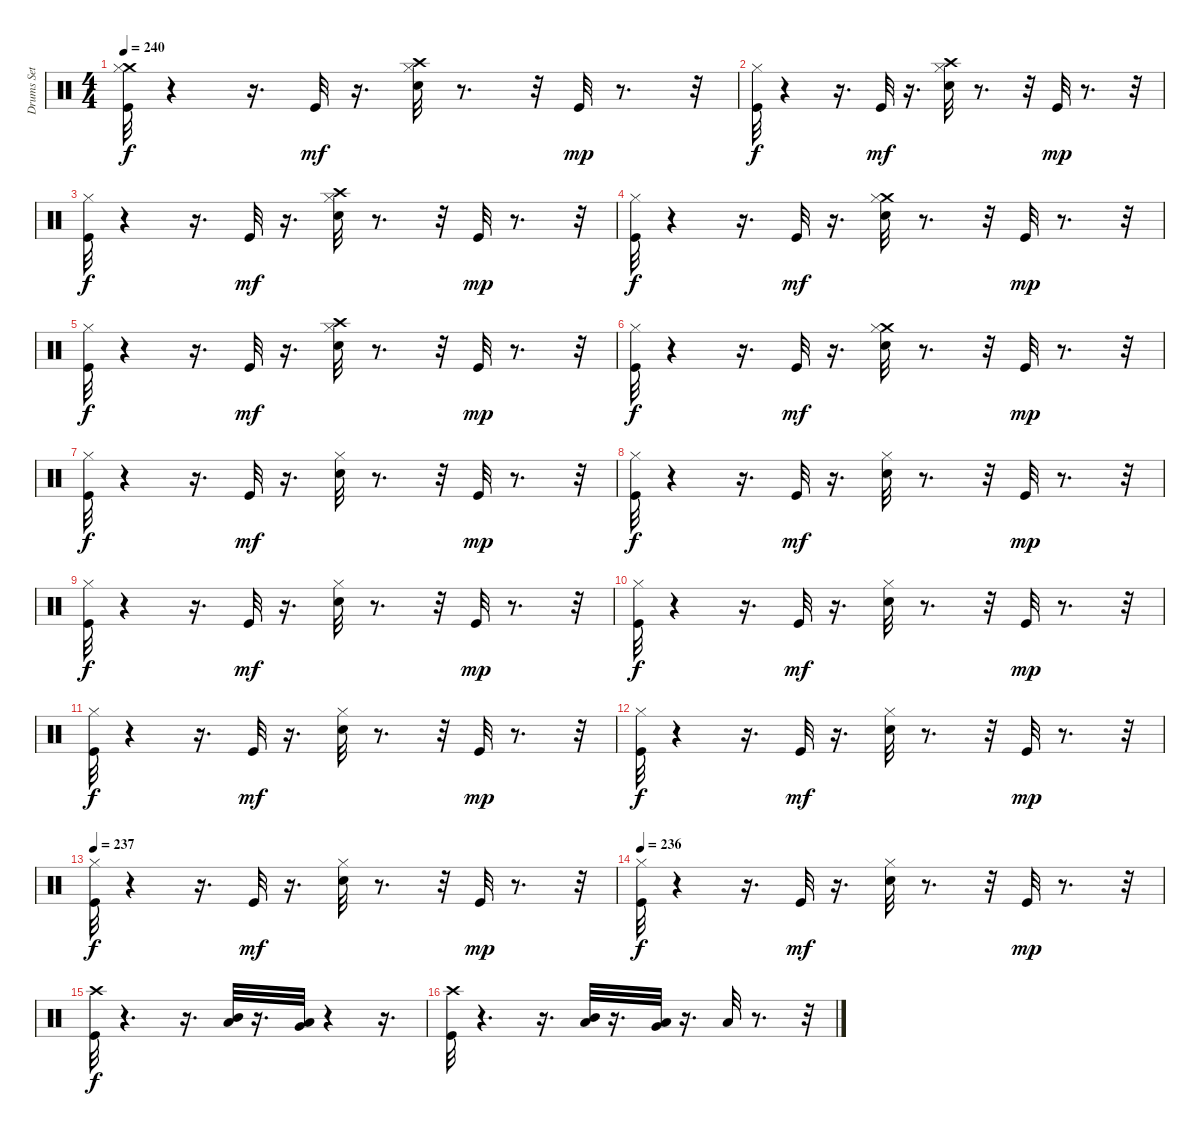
\track ("Drums Set" "Drums Set") {instrument percussion}
\staff {score}
\articulation defaults
\ts (4 4)
\tempo 240
\clef neutral
\ks c
("Crash medium (hit)" "Kick (hit)" "Hi-Hat (closed)").32{dy f} r.4 r.16{d} "Kick (hit)".32{dy mf} r.16{d} ("Crash high (hit)" "Hi-Hat (closed)" "Snare (hit) 2").32 r.8{d} r.32 "Kick (hit)".32{dy mp} r.8{d} r.32 |
("Kick (hit)" "Hi-Hat (closed)").32{dy f} r.4 r.16{d} "Kick (hit)".32{dy mf} r.16{d} ("Crash high (hit)" "Hi-Hat (closed)" "Snare (hit) 2").32 r.8{d} r.32 "Kick (hit)".32{dy mp} r.8{d} r.32 |
("Kick (hit)" "Hi-Hat (closed)").32{dy f} r.4 r.16{d} "Kick (hit)".32{dy mf} r.16{d} ("Crash high (hit)" "Hi-Hat (closed)" "Snare (hit) 2").32 r.8{d} r.32 "Kick (hit)".32{dy mp} r.8{d} r.32 |
("Kick (hit)" "Hi-Hat (closed)").32{dy f} r.4 r.16{d} "Kick (hit)".32{dy mf} r.16{d} ("Crash medium (hit)" "Hi-Hat (closed)" "Snare (hit) 2").32 r.8{d} r.32 "Kick (hit)".32{dy mp} r.8{d} r.32 |
("Kick (hit)" "Hi-Hat (closed)").32{dy f} r.4 r.16{d} "Kick (hit)".32{dy mf} r.16{d} ("Crash high (hit)" "Hi-Hat (closed)" "Snare (hit) 2").32 r.8{d} r.32 "Kick (hit)".32{dy mp} r.8{d} r.32 |
("Kick (hit)" "Hi-Hat (closed)").32{dy f} r.4 r.16{d} "Kick (hit)".32{dy mf} r.16{d} ("Crash medium (hit)" "Hi-Hat (closed)" "Snare (hit) 2").32 r.8{d} r.32 "Kick (hit)".32{dy mp} r.8{d} r.32 |
("Kick (hit)" "Hi-Hat (closed)").32{dy f} r.4 r.16{d} "Kick (hit)".32{dy mf} r.16{d} ("Hi-Hat (closed)" "Snare (hit) 2").32 r.8{d} r.32 "Kick (hit)".32{dy mp} r.8{d} r.32 |
("Kick (hit)" "Hi-Hat (closed)").32{dy f} r.4 r.16{d} "Kick (hit)".32{dy mf} r.16{d} ("Hi-Hat (closed)" "Snare (hit) 2").32 r.8{d} r.32 "Kick (hit)".32{dy mp} r.8{d} r.32 |
("Kick (hit)" "Hi-Hat (closed)").32{dy f} r.4 r.16{d} "Kick (hit)".32{dy mf} r.16{d} ("Hi-Hat (closed)" "Snare (hit) 2").32 r.8{d} r.32 "Kick (hit)".32{dy mp} r.8{d} r.32 |
("Kick (hit)" "Hi-Hat (closed)").32{dy f} r.4 r.16{d} "Kick (hit)".32{dy mf} r.16{d} ("Hi-Hat (closed)" "Snare (hit) 2").32 r.8{d} r.32 "Kick (hit)".32{dy mp} r.8{d} r.32 |
("Kick (hit)" "Hi-Hat (closed)").32{dy f} r.4 r.16{d} "Kick (hit)".32{dy mf} r.16{d} ("Hi-Hat (closed)" "Snare (hit) 2").32 r.8{d} r.32 "Kick (hit)".32{dy mp} r.8{d} r.32 |
("Kick (hit)" "Hi-Hat (closed)").32{dy f} r.4 r.16{d} "Kick (hit)".32{dy mf} r.16{d} ("Hi-Hat (closed)" "Snare (hit) 2").32 r.8{d} r.32 "Kick (hit)".32{dy mp} r.8{d} r.32 |
\tempo 237
("Kick (hit)" "Hi-Hat (closed)").32{dy f} r.4 r.16{d} "Kick (hit)".32{dy mf} r.16{d} ("Hi-Hat (closed)" "Snare (hit) 2").32 r.8{d} r.32 "Kick (hit)".32{dy mp} r.8{d} r.32 |
\tempo 236
("Kick (hit)" "Hi-Hat (closed)").32{dy f} r.4 r.16{d} "Kick (hit)".32{dy mf} r.16{d} ("Hi-Hat (closed)" "Snare (hit) 2").32 r.8{d} r.32 "Kick (hit)".32{dy mp} r.8{d} r.32 |
("Crash high (hit)" "Kick (hit)").32{dy f} r.4{d} r.16{d} ("Low Tom (hit)" "Mid Tom (hit)").32 r.16{d} ("Low Floor Tom (hit)" "Very Low Tom (hit)").32 r.4 r.16{d} |
("Crash high (hit)" "Kick (hit)").32 r.4{d} r.16{d} ("Low Tom (hit)" "Mid Tom (hit)").32 r.16{d} ("Low Floor Tom (hit)" "Very Low Tom (hit)").32 r.16{d} "Low Floor Tom (hit)".32 r.8{d} r.32
